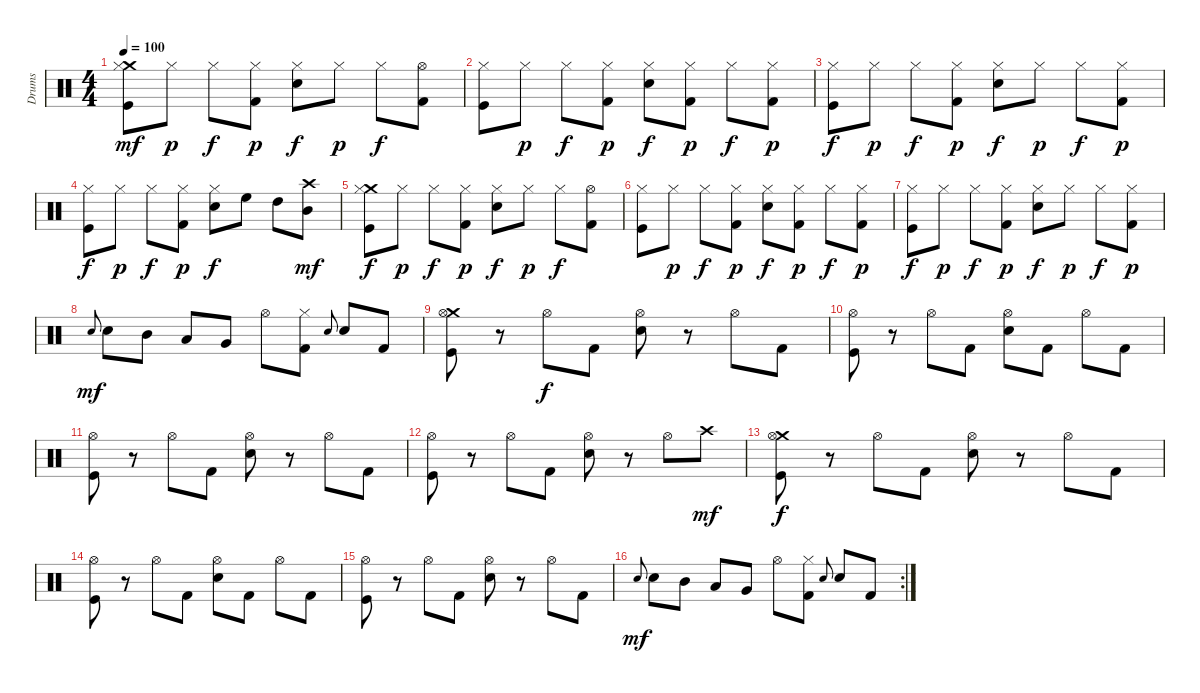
\track ("Drums" "Drums") {instrument percussion}
\staff {score}
\articulation defaults
\ts (4 4)
\tempo 100
\clef neutral
\ks c
("Crash medium (hit)" "Hi-Hat (closed)" "Kick (hit)").8{dy mf} "Hi-Hat (closed)".8{dy p} "Hi-Hat (closed)".8{dy f} ("Hi-Hat (closed)" "Kick (hit) 2").8{dy p} ("Hi-Hat (closed)" "Electric Snare (hit)").8{dy f} "Hi-Hat (closed)".8{dy p} "Hi-Hat (closed)".8{dy f} ("Hi-Hat (open)" "Kick (hit) 2").8 |
("Hi-Hat (closed)" "Kick (hit)").8 "Hi-Hat (closed)".8{dy p} "Hi-Hat (closed)".8{dy f} ("Hi-Hat (closed)" "Kick (hit) 2").8{dy p} ("Hi-Hat (closed)" "Electric Snare (hit)").8{dy f} ("Hi-Hat (closed)" "Kick (hit) 2").8{dy p} "Hi-Hat (closed)".8{dy f} ("Hi-Hat (closed)" "Kick (hit) 2").8{dy p} |
("Hi-Hat (closed)" "Kick (hit)").8{dy f} "Hi-Hat (closed)".8{dy p} "Hi-Hat (closed)".8{dy f} ("Hi-Hat (closed)" "Kick (hit) 2").8{dy p} ("Hi-Hat (closed)" "Electric Snare (hit)").8{dy f} "Hi-Hat (closed)".8{dy p} "Hi-Hat (closed)".8{dy f} ("Hi-Hat (closed)" "Kick (hit) 2").8{dy p} |
("Hi-Hat (closed)" "Kick (hit)").8{dy f} "Hi-Hat (closed)".8{dy p} "Hi-Hat (closed)".8{dy f} ("Hi-Hat (closed)" "Kick (hit) 2").8{dy p} ("Hi-Hat (closed)" "Electric Snare (hit)").8{dy f} "High Floor Tom (hit)".8 "High Tom (hit)".8 ("Crash high (hit)" "Mid Tom (hit)").8{dy mf} |
("Crash medium (hit)" "Hi-Hat (closed)" "Kick (hit)").8{dy f} "Hi-Hat (closed)".8{dy p} "Hi-Hat (closed)".8{dy f} ("Hi-Hat (closed)" "Kick (hit) 2").8{dy p} ("Hi-Hat (closed)" "Electric Snare (hit)").8{dy f} "Hi-Hat (closed)".8{dy p} "Hi-Hat (closed)".8{dy f} ("Hi-Hat (open)" "Kick (hit) 2").8 |
("Hi-Hat (closed)" "Kick (hit)").8 "Hi-Hat (closed)".8{dy p} "Hi-Hat (closed)".8{dy f} ("Hi-Hat (closed)" "Kick (hit) 2").8{dy p} ("Hi-Hat (closed)" "Electric Snare (hit)").8{dy f} ("Hi-Hat (closed)" "Kick (hit) 2").8{dy p} "Hi-Hat (closed)".8{dy f} ("Hi-Hat (closed)" "Kick (hit) 2").8{dy p} |
("Hi-Hat (closed)" "Kick (hit)").8{dy f} "Hi-Hat (closed)".8{dy p} "Hi-Hat (closed)".8{dy f} ("Hi-Hat (closed)" "Kick (hit) 2").8{dy p} ("Hi-Hat (closed)" "Electric Snare (hit)").8{dy f} "Hi-Hat (closed)".8{dy p} "Hi-Hat (closed)".8{dy f} ("Hi-Hat (closed)" "Kick (hit) 2").8{dy p} |
"Electric Snare (hit)".8{gr onbeat dy mf} "Electric Snare (hit)".8 "Mid Tom (hit)".8 "Low Tom (hit)".8 "Very Low Tom (hit)".8 "Hi-Hat (open)".8 ("Kick (hit) 2" "Hi-Hat (closed)").8 "Electric Snare (hit)".8{gr onbeat} "Electric Snare (hit)".8 "Kick (hit) 2".8 |
("Crash medium (hit)" "Hi-Hat (open)" "Kick (hit)").8 r.8 "Hi-Hat (open)".8{dy f} "Kick (hit) 2".8 ("Hi-Hat (open)" "Electric Snare (hit)").8 r.8 "Hi-Hat (open)".8 "Kick (hit) 2".8 |
("Hi-Hat (open)" "Kick (hit)").8 r.8 "Hi-Hat (open)".8 "Kick (hit) 2".8 ("Hi-Hat (open)" "Electric Snare (hit)").8 "Kick (hit) 2".8 "Hi-Hat (open)".8 "Kick (hit) 2".8 |
("Hi-Hat (open)" "Kick (hit)").8 r.8 "Hi-Hat (open)".8 "Kick (hit) 2".8 ("Hi-Hat (open)" "Electric Snare (hit)").8 r.8 "Hi-Hat (open)".8 "Kick (hit) 2".8 |
("Hi-Hat (open)" "Kick (hit)").8 r.8 "Hi-Hat (open)".8 "Kick (hit) 2".8 ("Hi-Hat (open)" "Electric Snare (hit)").8 r.8 "Hi-Hat (open)".8 "Crash high (hit)".8{dy mf} |
("Crash medium (hit)" "Hi-Hat (open)" "Kick (hit)").8{dy f} r.8 "Hi-Hat (open)".8 "Kick (hit) 2".8 ("Hi-Hat (open)" "Electric Snare (hit)").8 r.8 "Hi-Hat (open)".8 "Kick (hit) 2".8 |
("Hi-Hat (open)" "Kick (hit)").8 r.8 "Hi-Hat (open)".8 "Kick (hit) 2".8 ("Hi-Hat (open)" "Electric Snare (hit)").8 "Kick (hit) 2".8 "Hi-Hat (open)".8 "Kick (hit) 2".8 |
("Hi-Hat (open)" "Kick (hit)").8 r.8 "Hi-Hat (open)".8 "Kick (hit) 2".8 ("Hi-Hat (open)" "Electric Snare (hit)").8 r.8 "Hi-Hat (open)".8 "Kick (hit) 2".8 |
\rc 2 "Electric Snare (hit)".8{gr onbeat dy mf} "Electric Snare (hit)".8 "Mid Tom (hit)".8 "Low Tom (hit)".8 "Very Low Tom (hit)".8 "Hi-Hat (open)".8
("Kick (hit) 2" "Hi-Hat (closed)").8 "Electric Snare (hit)".8{gr onbeat} "Electric Snare (hit)".8 "Kick (hit) 2".8
